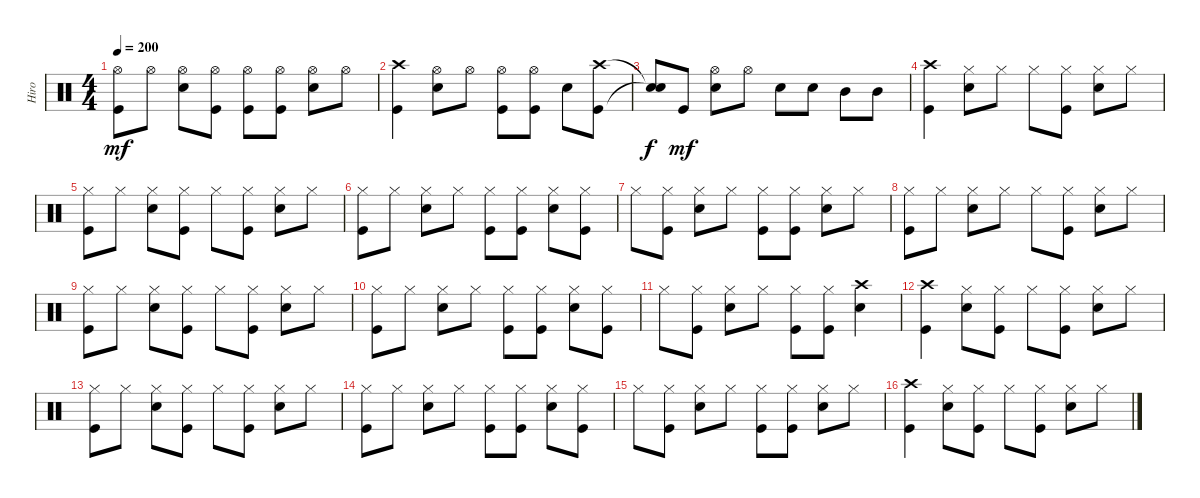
\track ("Hiro" "Hiro") {instrument percussion}
\staff {score}
\articulation defaults
\ts (4 4)
\tempo 200
\clef neutral
\ks c
("Hi-Hat (open)" "Kick (hit)").8{dy mf} "Hi-Hat (open)".8 ("Electric Snare (hit)" "Hi-Hat (open)").8 ("Kick (hit)" "Hi-Hat (open)").8 ("Kick (hit)" "Hi-Hat (open)").8 ("Kick (hit)" "Hi-Hat (open)").8 ("Electric Snare (hit)" "Hi-Hat (open)").8 "Hi-Hat (open)".8 |
("Crash high (hit)" "Kick (hit)").4 ("Hi-Hat (open)" "Electric Snare (hit)").8 "Hi-Hat (open)".8 ("Hi-Hat (open)" "Kick (hit)").8 ("Hi-Hat (open)" "Kick (hit)").8 "Electric Snare (hit)".8 ("Kick (hit)" "Crash high (hit)").8 |
("Snare (hit)"{t} "Snare (hit)"{t}).8{dy f} "Kick (hit)".8{dy mf} ("Hi-Hat (open)" "Electric Snare (hit)").8 "Hi-Hat (open)".8 "Electric Snare (hit)".8 "Electric Snare (hit)".8 "Mid Tom (hit)".8 "Mid Tom (hit)".8 |
("Crash high (hit)" "Kick (hit)").4 ("Electric Snare (hit)" "Hi-Hat (closed)").8 "Hi-Hat (closed)".8 "Hi-Hat (closed)".8 ("Kick (hit)" "Hi-Hat (closed)").8 ("Electric Snare (hit)" "Hi-Hat (closed)").8 "Hi-Hat (closed)".8 |
("Kick (hit)" "Hi-Hat (closed)").8 "Hi-Hat (closed)".8 ("Electric Snare (hit)" "Hi-Hat (closed)").8 ("Kick (hit)" "Hi-Hat (closed)").8 "Hi-Hat (closed)".8 ("Kick (hit)" "Hi-Hat (closed)").8 ("Electric Snare (hit)" "Hi-Hat (closed)").8 "Hi-Hat (closed)".8 |
("Kick (hit)" "Hi-Hat (closed)").8 "Hi-Hat (closed)".8 ("Electric Snare (hit)" "Hi-Hat (closed)").8 "Hi-Hat (closed)".8 ("Kick (hit)" "Hi-Hat (closed)").8 ("Kick (hit)" "Hi-Hat (closed)").8 ("Electric Snare (hit)" "Hi-Hat (closed)").8 ("Kick (hit)" "Hi-Hat (closed)").8 |
"Hi-Hat (closed)".8 ("Kick (hit)" "Hi-Hat (closed)").8 ("Electric Snare (hit)" "Hi-Hat (closed)").8 "Hi-Hat (closed)".8 ("Kick (hit)" "Hi-Hat (closed)").8 ("Kick (hit)" "Hi-Hat (closed)").8 ("Electric Snare (hit)" "Hi-Hat (closed)").8 "Hi-Hat (closed)".8 |
("Kick (hit)" "Hi-Hat (closed)").8 "Hi-Hat (closed)".8 ("Electric Snare (hit)" "Hi-Hat (closed)").8 "Hi-Hat (closed)".8 "Hi-Hat (closed)".8 ("Kick (hit)" "Hi-Hat (closed)").8 ("Electric Snare (hit)" "Hi-Hat (closed)").8 "Hi-Hat (closed)".8 |
("Kick (hit)" "Hi-Hat (closed)").8 "Hi-Hat (closed)".8 ("Electric Snare (hit)" "Hi-Hat (closed)").8 ("Kick (hit)" "Hi-Hat (closed)").8 "Hi-Hat (closed)".8 ("Kick (hit)" "Hi-Hat (closed)").8 ("Electric Snare (hit)" "Hi-Hat (closed)").8 "Hi-Hat (closed)".8 |
("Kick (hit)" "Hi-Hat (closed)").8 "Hi-Hat (closed)".8 ("Electric Snare (hit)" "Hi-Hat (closed)").8 "Hi-Hat (closed)".8 ("Kick (hit)" "Hi-Hat (closed)").8 ("Kick (hit)" "Hi-Hat (closed)").8 ("Electric Snare (hit)" "Hi-Hat (closed)").8 ("Kick (hit)" "Hi-Hat (closed)").8 |
"Hi-Hat (closed)".8 ("Kick (hit)" "Hi-Hat (closed)").8 ("Electric Snare (hit)" "Hi-Hat (closed)").8 "Hi-Hat (closed)".8 ("Kick (hit)" "Hi-Hat (closed)").8 ("Kick (hit)" "Hi-Hat (closed)").8 ("Electric Snare (hit)" "Crash high (hit)").4 |
("Crash high (hit)" "Kick (hit)").4 ("Electric Snare (hit)" "Hi-Hat (closed)").8 ("Kick (hit)" "Hi-Hat (closed)").8 "Hi-Hat (closed)".8 ("Kick (hit)" "Hi-Hat (closed)").8 ("Electric Snare (hit)" "Hi-Hat (closed)").8 "Hi-Hat (closed)".8 |
("Kick (hit)" "Hi-Hat (closed)").8 "Hi-Hat (closed)".8 ("Electric Snare (hit)" "Hi-Hat (closed)").8 ("Kick (hit)" "Hi-Hat (closed)").8 "Hi-Hat (closed)".8 ("Kick (hit)" "Hi-Hat (closed)").8 ("Electric Snare (hit)" "Hi-Hat (closed)").8 "Hi-Hat (closed)".8 |
("Kick (hit)" "Hi-Hat (closed)").8 "Hi-Hat (closed)".8 ("Electric Snare (hit)" "Hi-Hat (closed)").8 "Hi-Hat (closed)".8 ("Kick (hit)" "Hi-Hat (closed)").8 ("Kick (hit)" "Hi-Hat (closed)").8 ("Electric Snare (hit)" "Hi-Hat (closed)").8 ("Kick (hit)" "Hi-Hat (closed)").8 |
"Hi-Hat (closed)".8 ("Kick (hit)" "Hi-Hat (closed)").8 ("Electric Snare (hit)" "Hi-Hat (closed)").8 "Hi-Hat (closed)".8 ("Kick (hit)" "Hi-Hat (closed)").8 ("Kick (hit)" "Hi-Hat (closed)").8 ("Electric Snare (hit)" "Hi-Hat (closed)").8 "Hi-Hat (closed)".8 |
("Crash high (hit)" "Kick (hit)").4 ("Electric Snare (hit)" "Hi-Hat (closed)").8 ("Kick (hit)" "Hi-Hat (closed)").8 "Hi-Hat (closed)".8 ("Kick (hit)" "Hi-Hat (closed)").8 ("Electric Snare (hit)" "Hi-Hat (closed)").8 "Hi-Hat (closed)".8
